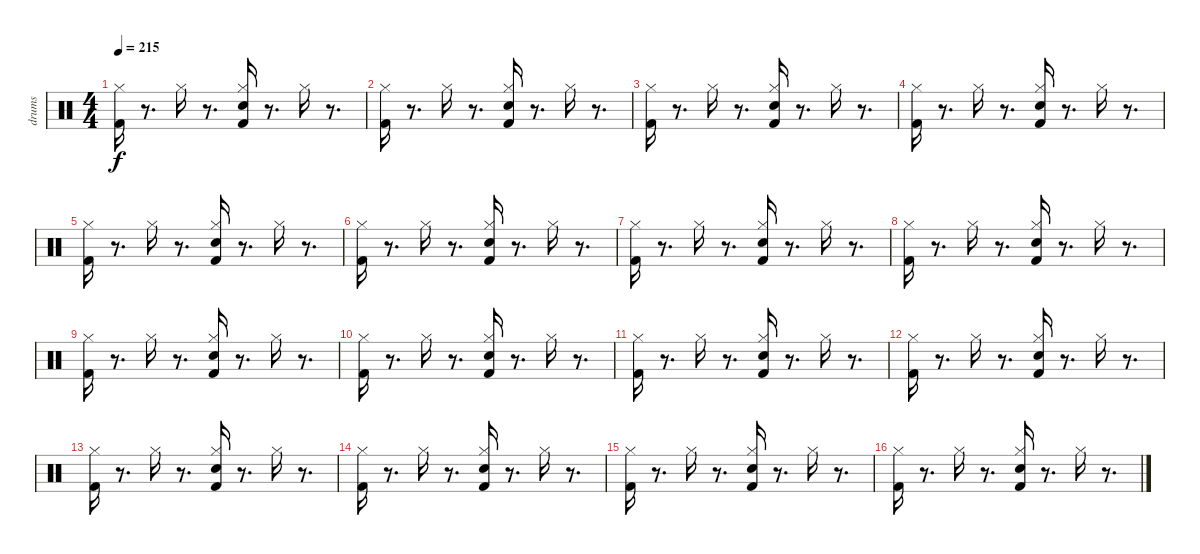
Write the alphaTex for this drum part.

\track ("drums" "drums") {instrument percussion}
\staff {score}
\articulation defaults
\ts (4 4)
\tempo 215
\clef neutral
\ks c
("Kick (hit) 2" "Hi-Hat (closed)").16{dy f} r.8{d} "Hi-Hat (closed)".16 r.8{d} ("Electric Snare (hit)" "Kick (hit) 2" "Hi-Hat (closed)").16 r.8{d} "Hi-Hat (closed)".16 r.8{d} |
("Kick (hit) 2" "Hi-Hat (closed)").16 r.8{d} "Hi-Hat (closed)".16 r.8{d} ("Electric Snare (hit)" "Kick (hit) 2" "Hi-Hat (closed)").16 r.8{d} "Hi-Hat (closed)".16 r.8{d} |
("Kick (hit) 2" "Hi-Hat (closed)").16 r.8{d} "Hi-Hat (closed)".16 r.8{d} ("Electric Snare (hit)" "Kick (hit) 2" "Hi-Hat (closed)").16 r.8{d} "Hi-Hat (closed)".16 r.8{d} |
("Kick (hit) 2" "Hi-Hat (closed)").16 r.8{d} "Hi-Hat (closed)".16 r.8{d} ("Electric Snare (hit)" "Kick (hit) 2" "Hi-Hat (closed)").16 r.8{d} "Hi-Hat (closed)".16 r.8{d} |
("Kick (hit) 2" "Hi-Hat (closed)").16 r.8{d} "Hi-Hat (closed)".16 r.8{d} ("Electric Snare (hit)" "Kick (hit) 2" "Hi-Hat (closed)").16 r.8{d} "Hi-Hat (closed)".16 r.8{d} |
("Kick (hit) 2" "Hi-Hat (closed)").16 r.8{d} "Hi-Hat (closed)".16 r.8{d} ("Electric Snare (hit)" "Kick (hit) 2" "Hi-Hat (closed)").16 r.8{d} "Hi-Hat (closed)".16 r.8{d} |
("Kick (hit) 2" "Hi-Hat (closed)").16 r.8{d} "Hi-Hat (closed)".16 r.8{d} ("Electric Snare (hit)" "Kick (hit) 2" "Hi-Hat (closed)").16 r.8{d} "Hi-Hat (closed)".16 r.8{d} |
("Kick (hit) 2" "Hi-Hat (closed)").16 r.8{d} "Hi-Hat (closed)".16 r.8{d} ("Electric Snare (hit)" "Kick (hit) 2" "Hi-Hat (closed)").16 r.8{d} "Hi-Hat (closed)".16 r.8{d} |
("Kick (hit) 2" "Hi-Hat (closed)").16 r.8{d} "Hi-Hat (closed)".16 r.8{d} ("Electric Snare (hit)" "Kick (hit) 2" "Hi-Hat (closed)").16 r.8{d} "Hi-Hat (closed)".16 r.8{d} |
("Kick (hit) 2" "Hi-Hat (closed)").16 r.8{d} "Hi-Hat (closed)".16 r.8{d} ("Electric Snare (hit)" "Kick (hit) 2" "Hi-Hat (closed)").16 r.8{d} "Hi-Hat (closed)".16 r.8{d} |
("Kick (hit) 2" "Hi-Hat (closed)").16 r.8{d} "Hi-Hat (closed)".16 r.8{d} ("Electric Snare (hit)" "Kick (hit) 2" "Hi-Hat (closed)").16 r.8{d} "Hi-Hat (closed)".16 r.8{d} |
("Kick (hit) 2" "Hi-Hat (closed)").16 r.8{d} "Hi-Hat (closed)".16 r.8{d} ("Electric Snare (hit)" "Kick (hit) 2" "Hi-Hat (closed)").16 r.8{d} "Hi-Hat (closed)".16 r.8{d} |
("Kick (hit) 2" "Hi-Hat (closed)").16 r.8{d} "Hi-Hat (closed)".16 r.8{d} ("Electric Snare (hit)" "Kick (hit) 2" "Hi-Hat (closed)").16 r.8{d} "Hi-Hat (closed)".16 r.8{d} |
("Kick (hit) 2" "Hi-Hat (closed)").16 r.8{d} "Hi-Hat (closed)".16 r.8{d} ("Electric Snare (hit)" "Kick (hit) 2" "Hi-Hat (closed)").16 r.8{d} "Hi-Hat (closed)".16 r.8{d} |
("Kick (hit) 2" "Hi-Hat (closed)").16 r.8{d} "Hi-Hat (closed)".16 r.8{d} ("Electric Snare (hit)" "Kick (hit) 2" "Hi-Hat (closed)").16 r.8{d} "Hi-Hat (closed)".16 r.8{d} |
("Kick (hit) 2" "Hi-Hat (closed)").16 r.8{d} "Hi-Hat (closed)".16 r.8{d} ("Electric Snare (hit)" "Kick (hit) 2" "Hi-Hat (closed)").16 r.8{d} "Hi-Hat (closed)".16 r.8{d}
